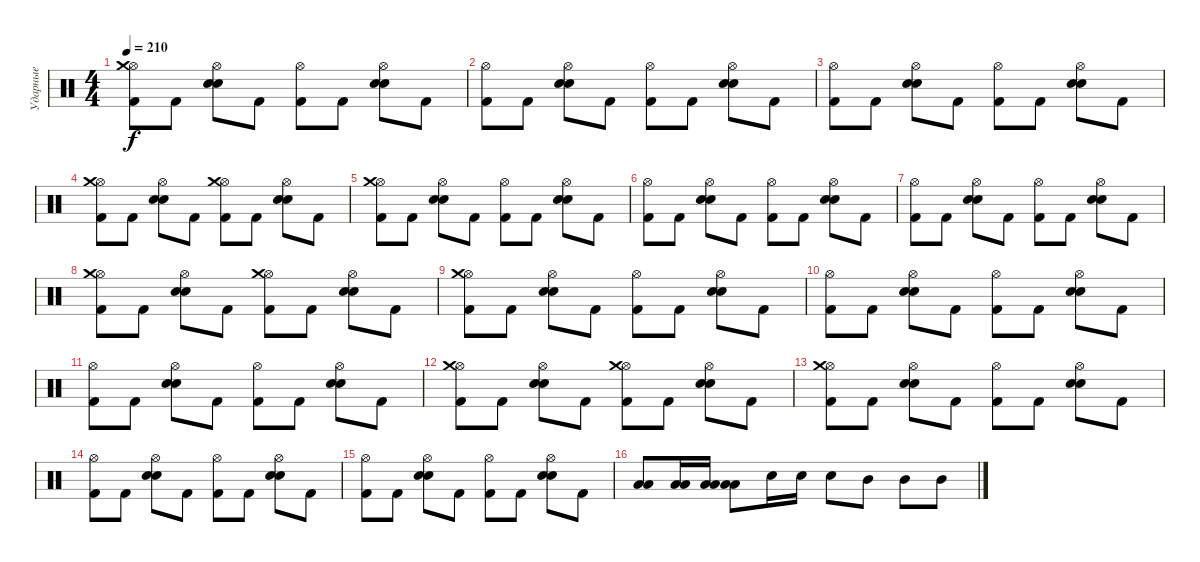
\track ("Ударные" "Ударные") {instrument percussion}
\staff {score}
\articulation defaults
\ts (4 4)
\tempo 210
\clef neutral
\ks c
("Hi-Hat (open)" "Crash medium (hit)" "Kick (hit) 2").8{dy f} "Kick (hit) 2".8 ("Hi-Hat (open)" "Electric Snare (hit)" "Snare (hit) 2").8 "Kick (hit) 2".8 ("Hi-Hat (open)" "Kick (hit) 2").8 "Kick (hit) 2".8 ("Hi-Hat (open)" "Electric Snare (hit)" "Snare (hit) 2").8 "Kick (hit) 2".8 |
("Hi-Hat (open)" "Kick (hit) 2").8 "Kick (hit) 2".8 ("Hi-Hat (open)" "Electric Snare (hit)" "Snare (hit) 2").8 "Kick (hit) 2".8 ("Hi-Hat (open)" "Kick (hit) 2").8 "Kick (hit) 2".8 ("Hi-Hat (open)" "Electric Snare (hit)" "Snare (hit) 2").8 "Kick (hit) 2".8 |
("Hi-Hat (open)" "Kick (hit) 2").8 "Kick (hit) 2".8 ("Hi-Hat (open)" "Electric Snare (hit)" "Snare (hit) 2").8 "Kick (hit) 2".8 ("Hi-Hat (open)" "Kick (hit) 2").8 "Kick (hit) 2".8 ("Hi-Hat (open)" "Electric Snare (hit)" "Snare (hit) 2").8 "Kick (hit) 2".8 |
("Hi-Hat (open)" "Crash medium (hit)" "Kick (hit) 2").8 "Kick (hit) 2".8 ("Hi-Hat (open)" "Electric Snare (hit)" "Snare (hit) 2").8 "Kick (hit) 2".8 ("Hi-Hat (open)" "Crash medium (hit)" "Kick (hit) 2").8 "Kick (hit) 2".8 ("Hi-Hat (open)" "Electric Snare (hit)" "Snare (hit) 2").8 "Kick (hit) 2".8 |
("Hi-Hat (open)" "Crash medium (hit)" "Kick (hit) 2").8 "Kick (hit) 2".8 ("Hi-Hat (open)" "Electric Snare (hit)" "Snare (hit) 2").8 "Kick (hit) 2".8 ("Hi-Hat (open)" "Kick (hit) 2").8 "Kick (hit) 2".8 ("Hi-Hat (open)" "Electric Snare (hit)" "Snare (hit) 2").8 "Kick (hit) 2".8 |
("Hi-Hat (open)" "Kick (hit) 2").8 "Kick (hit) 2".8 ("Hi-Hat (open)" "Electric Snare (hit)" "Snare (hit) 2").8 "Kick (hit) 2".8 ("Hi-Hat (open)" "Kick (hit) 2").8 "Kick (hit) 2".8 ("Hi-Hat (open)" "Electric Snare (hit)" "Snare (hit) 2").8 "Kick (hit) 2".8 |
("Hi-Hat (open)" "Kick (hit) 2").8 "Kick (hit) 2".8 ("Hi-Hat (open)" "Electric Snare (hit)" "Snare (hit) 2").8 "Kick (hit) 2".8 ("Hi-Hat (open)" "Kick (hit) 2").8 "Kick (hit) 2".8 ("Hi-Hat (open)" "Electric Snare (hit)" "Snare (hit) 2").8 "Kick (hit) 2".8 |
("Hi-Hat (open)" "Crash medium (hit)" "Kick (hit) 2").8 "Kick (hit) 2".8 ("Hi-Hat (open)" "Electric Snare (hit)" "Snare (hit) 2").8 "Kick (hit) 2".8 ("Hi-Hat (open)" "Crash medium (hit)" "Kick (hit) 2").8 "Kick (hit) 2".8 ("Hi-Hat (open)" "Electric Snare (hit)" "Snare (hit) 2").8 "Kick (hit) 2".8 |
("Hi-Hat (open)" "Crash medium (hit)" "Kick (hit) 2").8 "Kick (hit) 2".8 ("Hi-Hat (open)" "Electric Snare (hit)" "Snare (hit) 2").8 "Kick (hit) 2".8 ("Hi-Hat (open)" "Kick (hit) 2").8 "Kick (hit) 2".8 ("Hi-Hat (open)" "Electric Snare (hit)" "Snare (hit) 2").8 "Kick (hit) 2".8 |
("Hi-Hat (open)" "Kick (hit) 2").8 "Kick (hit) 2".8 ("Hi-Hat (open)" "Electric Snare (hit)" "Snare (hit) 2").8 "Kick (hit) 2".8 ("Hi-Hat (open)" "Kick (hit) 2").8 "Kick (hit) 2".8 ("Hi-Hat (open)" "Electric Snare (hit)" "Snare (hit) 2").8 "Kick (hit) 2".8 |
("Hi-Hat (open)" "Kick (hit) 2").8 "Kick (hit) 2".8 ("Hi-Hat (open)" "Electric Snare (hit)" "Snare (hit) 2").8 "Kick (hit) 2".8 ("Hi-Hat (open)" "Kick (hit) 2").8 "Kick (hit) 2".8 ("Hi-Hat (open)" "Electric Snare (hit)" "Snare (hit) 2").8 "Kick (hit) 2".8 |
("Hi-Hat (open)" "Crash medium (hit)" "Kick (hit) 2").8 "Kick (hit) 2".8 ("Hi-Hat (open)" "Electric Snare (hit)" "Snare (hit) 2").8 "Kick (hit) 2".8 ("Hi-Hat (open)" "Crash medium (hit)" "Kick (hit) 2").8 "Kick (hit) 2".8 ("Hi-Hat (open)" "Electric Snare (hit)" "Snare (hit) 2").8 "Kick (hit) 2".8 |
("Hi-Hat (open)" "Crash medium (hit)" "Kick (hit) 2").8 "Kick (hit) 2".8 ("Hi-Hat (open)" "Electric Snare (hit)" "Snare (hit) 2").8 "Kick (hit) 2".8 ("Hi-Hat (open)" "Kick (hit) 2").8 "Kick (hit) 2".8 ("Hi-Hat (open)" "Electric Snare (hit)" "Snare (hit) 2").8 "Kick (hit) 2".8 |
("Hi-Hat (open)" "Kick (hit) 2").8 "Kick (hit) 2".8 ("Hi-Hat (open)" "Electric Snare (hit)" "Snare (hit) 2").8 "Kick (hit) 2".8 ("Hi-Hat (open)" "Kick (hit) 2").8 "Kick (hit) 2".8 ("Hi-Hat (open)" "Electric Snare (hit)" "Snare (hit) 2").8 "Kick (hit) 2".8 |
("Hi-Hat (open)" "Kick (hit) 2").8 "Kick (hit) 2".8 ("Hi-Hat (open)" "Electric Snare (hit)" "Snare (hit) 2").8 "Kick (hit) 2".8 ("Hi-Hat (open)" "Kick (hit) 2").8 "Kick (hit) 2".8 ("Hi-Hat (open)" "Electric Snare (hit)" "Snare (hit) 2").8 "Kick (hit) 2".8 |
("Low Tom (hit)" "Low Tom (hit)").8 ("Low Tom (hit)" "Low Tom (hit)").16 ("Low Tom (hit)" "Low Tom (hit)").16 ("Low Tom (hit)" "Low Tom (hit)").8 "Electric Snare (hit)".16 "Electric Snare (hit)".16 "Electric Snare (hit)".8 "Mid Tom (hit)".8 "Mid Tom (hit)".8 "Mid Tom (hit)".8
